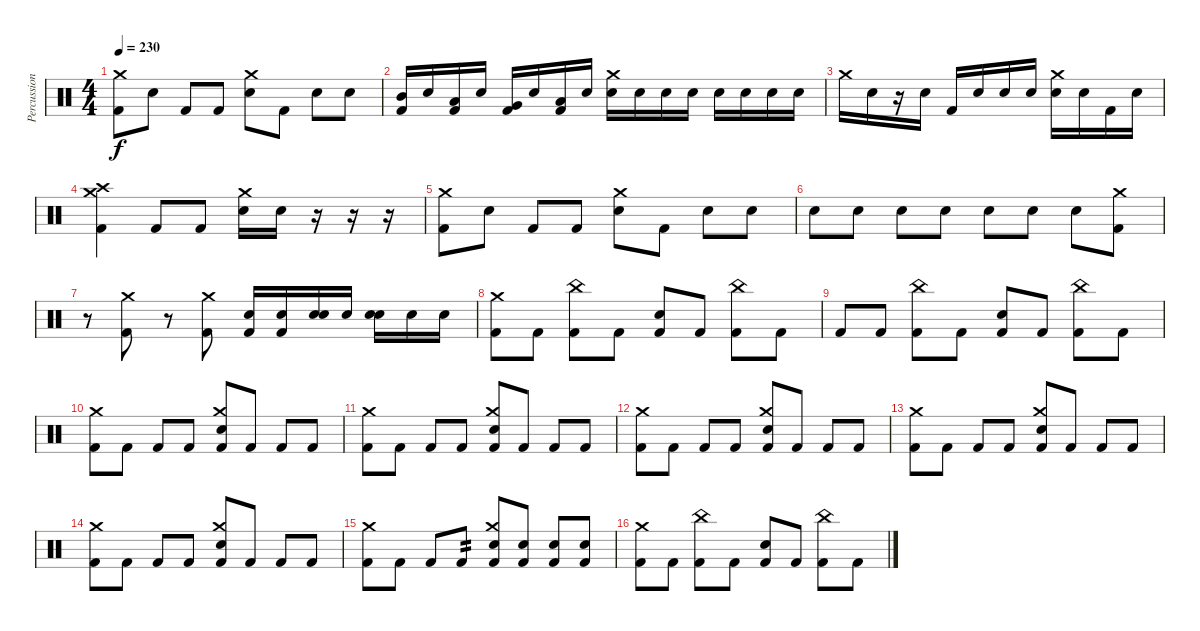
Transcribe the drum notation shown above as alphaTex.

\track ("Percussion" "Percussion") {instrument percussion}
\staff {score}
\articulation defaults
\ts (4 4)
\tempo 230
\clef neutral
\ks c
("Kick (hit) 2" "Crash medium (hit)").8{dy f} "Snare (hit) 2".8 "Kick (hit) 2".8 "Kick (hit) 2".8 ("Snare (hit) 2" "Crash medium (hit)").8 "Kick (hit) 2".8 "Snare (hit) 2".8 "Snare (hit) 2".8 |
("Mid Tom (hit)" "Kick (hit) 2").16 "Snare (hit)".16 ("Low Tom (hit)" "Kick (hit) 2").16 "Snare (hit)".16 ("Very Low Tom (hit)" "Kick (hit) 2").16 "Snare (hit)".16 ("Low Floor Tom (hit)" "Kick (hit) 2").16 "Snare (hit)".16 ("Snare (hit) 2" "Crash medium (hit)").16 "Snare (hit)".16 "Snare (hit)".16 "Snare (hit)".16 "Snare (hit)".16 "Snare (hit)".16 "Snare (hit)".16 "Snare (hit)".16 |
"Crash medium (hit)".16 "Snare (hit)".16 r.16 "Snare (hit)".16 "Kick (hit) 2".16 "Snare (hit)".16 "Snare (hit)".16 "Snare (hit)".16 ("Snare (hit) 2" "Crash medium (hit)").16 "Snare (hit)".16 "Kick (hit) 2".16 "Snare (hit)".16 |
("Crash high (hit)" "Crash medium (hit)" "Kick (hit) 2").4 "Kick (hit) 2".8 "Kick (hit) 2".8 ("Crash medium (hit)" "Snare (hit) 2").16 "Snare (hit)".16 r.16 r.16 r.16 |
("Kick (hit) 2" "Crash medium (hit)").8 "Snare (hit) 2".8 "Kick (hit) 2".8 "Kick (hit) 2".8 ("Snare (hit) 2" "Crash medium (hit)").8 "Kick (hit) 2".8 "Snare (hit) 2".8 "Snare (hit) 2".8 |
"Snare (hit)".8 "Snare (hit)".8 "Snare (hit)".8 "Snare (hit)".8 "Snare (hit)".8 "Snare (hit)".8 "Snare (hit)".8 ("Crash medium (hit)" "Kick (hit) 2").8 |
r.8 ("Crash medium (hit)" "Kick (hit) 2").8 r.8 ("Kick (hit) 2" "Crash medium (hit)").8 ("Kick (hit) 2" "Snare (hit)").16 ("Kick (hit) 2" "Snare (hit)").16 ("Snare (hit) 2" "Snare (hit)").16 "Snare (hit)".16 ("Snare (hit) 2" "Snare (hit)").16 "Snare (hit)".16 "Snare (hit) 2".16 |
("Crash medium (hit)" "Kick (hit) 2").8 "Kick (hit) 2".8 ("China (hit)" "Kick (hit) 2").8 "Kick (hit) 2".8 ("Snare (hit) 2" "Kick (hit) 2").8 "Kick (hit) 2".8 ("China (hit)" "Kick (hit) 2").8 "Kick (hit) 2".8 |
"Kick (hit) 2".8 "Kick (hit) 2".8 ("China (hit)" "Kick (hit) 2").8 "Kick (hit) 2".8 ("Snare (hit) 2" "Kick (hit) 2").8 "Kick (hit) 2".8 ("China (hit)" "Kick (hit) 2").8 "Kick (hit) 2".8 |
("Crash medium (hit)" "Kick (hit) 2").8 "Kick (hit) 2".8 "Kick (hit) 2".8 "Kick (hit) 2".8 ("Snare (hit) 2" "Crash medium (hit)" "Kick (hit) 2").8 "Kick (hit) 2".8 "Kick (hit) 2".8 "Kick (hit) 2".8 |
("Crash medium (hit)" "Kick (hit) 2").8 "Kick (hit) 2".8 "Kick (hit) 2".8 "Kick (hit) 2".8 ("Snare (hit) 2" "Crash medium (hit)" "Kick (hit) 2").8 "Kick (hit) 2".8 "Kick (hit) 2".8 "Kick (hit) 2".8 |
("Crash medium (hit)" "Kick (hit) 2").8 "Kick (hit) 2".8 "Kick (hit) 2".8 "Kick (hit) 2".8 ("Snare (hit) 2" "Crash medium (hit)" "Kick (hit) 2").8 "Kick (hit) 2".8 "Kick (hit) 2".8 "Kick (hit) 2".8 |
("Crash medium (hit)" "Kick (hit) 2").8 "Kick (hit) 2".8 "Kick (hit) 2".8 "Kick (hit) 2".8 ("Snare (hit) 2" "Crash medium (hit)" "Kick (hit) 2").8 "Kick (hit) 2".8 "Kick (hit) 2".8 "Kick (hit) 2".8 |
("Crash medium (hit)" "Kick (hit) 2").8 "Kick (hit) 2".8 "Kick (hit) 2".8 "Kick (hit) 2".8 ("Snare (hit) 2" "Crash medium (hit)" "Kick (hit) 2").8 "Kick (hit) 2".8 "Kick (hit) 2".8 "Kick (hit) 2".8 |
("Crash medium (hit)" "Kick (hit) 2").8 "Kick (hit) 2".8 "Kick (hit) 2".8 "Kick (hit) 2".8{tp 2} ("Snare (hit) 2" "Crash medium (hit)" "Kick (hit) 2").8 ("Snare (hit) 2" "Kick (hit) 2").8 ("Snare (hit) 2" "Kick (hit) 2").8 ("Snare (hit) 2" "Kick (hit) 2").8 |
("Crash medium (hit)" "Kick (hit) 2").8 "Kick (hit) 2".8 ("China (hit)" "Kick (hit) 2").8 "Kick (hit) 2".8 ("Snare (hit) 2" "Kick (hit) 2").8 "Kick (hit) 2".8 ("China (hit)" "Kick (hit) 2").8 "Kick (hit) 2".8
